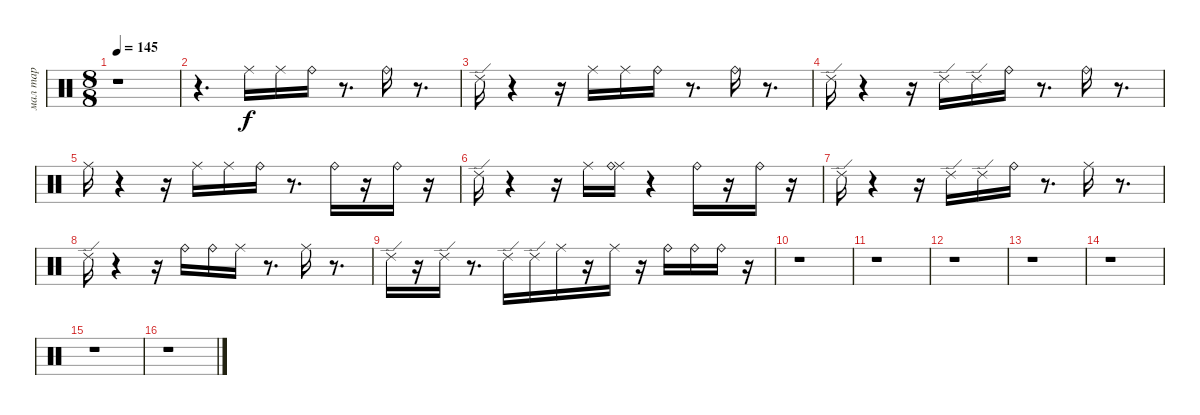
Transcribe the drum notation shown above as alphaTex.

\track ("мал тар" "мал тар") {instrument percussion}
\staff {score}
\articulation defaults
\ts (8 8)
\tempo 145
\clef neutral
\ks c
r.1{dy f} |
r.4{d} "Ride (middle)".16 "Ride (middle)".16 "Ride (bell)".16 r.8{d} "Ride (bell)".16 r.8{d} |
"Ride (edge) 2".16 r.4 r.16 "Ride (middle)".16 "Ride (middle)".16 "Ride (bell)".16 r.8{d} "Ride (bell)".16 r.8{d} |
"Ride (edge) 2".16 r.4 r.16 "Ride (edge) 2".16 "Ride (edge) 2".16 "Ride (bell)".16 r.8{d} "Ride (bell)".16 r.8{d} |
"Ride (middle)".16 r.4 r.16 "Ride (middle)".16 "Ride (middle)".16 "Ride (bell)".16 r.8{d} "Ride (bell)".16 r.16 "Ride (bell)".16 r.16 |
"Ride (edge) 2".16 r.4 r.16 "Ride (middle)".16 ("Ride (middle)" "Ride (bell)").16 r.4 "Ride (bell)".16 r.16 "Ride (bell)".16 r.16 |
"Ride (edge) 2".16 r.4 r.16 "Ride (edge) 2".16 "Ride (edge) 2".16 "Ride (bell)".16 r.8{d} "Ride (middle)".16 r.8{d} |
"Ride (edge) 2".16 r.4 r.16 "Ride (bell)".16 "Ride (bell)".16 "Ride (middle)".16 r.8{d} "Ride (middle)".16 r.8{d} |
"Ride (edge) 2".16 r.16 "Ride (edge) 2".16 r.8{d} "Ride (edge) 2".16 "Ride (edge) 2".16 "Ride (middle)".16 r.16 "Ride (middle)".16 r.16 "Ride (bell)".16 "Ride (bell)".16 "Ride (bell)".16 r.16 |
r.1 |
r.1 |
r.1 |
r.1 |
r.1 |
r.1 |
r.1
